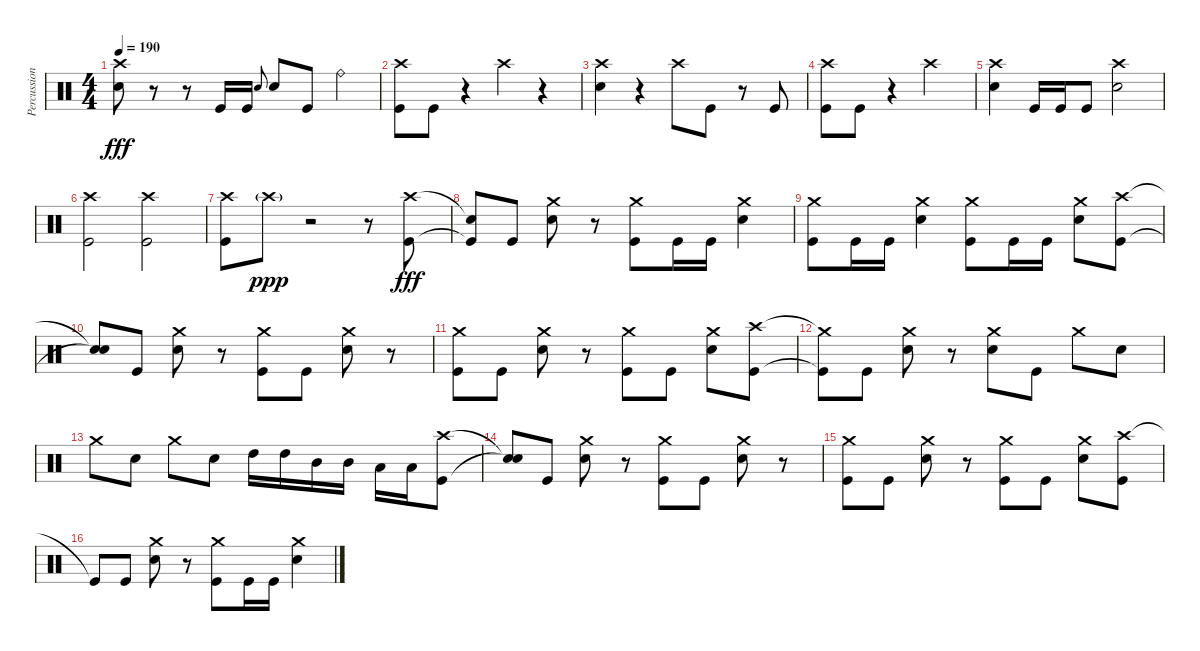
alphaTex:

\track ("Percussion" "Percussion") {instrument percussion}
\staff {score}
\articulation defaults
\ts (4 4)
\tempo 190
\clef neutral
\ks c
("Crash high (hit)" "Snare (hit) 2").8{dy fff} r.8 r.8 "Kick (hit)".16 "Kick (hit)".16 "Snare (hit) 2".8{gr onbeat} "Snare (hit) 2".8 "Kick (hit)".8 "Ride (bell)".4 |
("Crash high (hit)" "Kick (hit)").8 "Kick (hit)".8 r.4 "Crash high (hit)".4 r.4 |
("Crash high (hit)" "Snare (hit) 2").4 r.4 "Crash high (hit)".8 "Kick (hit)".8 r.8 "Kick (hit)".8 |
("Crash high (hit)" "Kick (hit)").8 "Kick (hit)".8 r.4 "Crash high (hit)".2 |
("Crash high (hit)" "Snare (hit) 2").4 "Kick (hit)".16 "Kick (hit)".16 "Kick (hit)".8 ("Crash high (hit)" "Snare (hit) 2").2 |
("Crash high (hit)" "Kick (hit)").2 ("Crash high (hit)" "Kick (hit)").2 |
("Crash high (hit)" "Kick (hit)").8 "Crash high (hit)"{g}.8{dy ppp} r.2 r.8 ("Crash high (hit)" "Kick (hit)").8{dy fff} |
("Snare (hit)"{t} "Kick (hit)"{t}).8 "Kick (hit)".8 ("Crash medium (hit)" "Snare (hit) 2").8 r.8 ("Crash medium (hit)" "Kick (hit)").8 "Kick (hit)".16 "Kick (hit)".16 ("Crash medium (hit)" "Snare (hit) 2").4 |
("Crash medium (hit)" "Kick (hit)").8 "Kick (hit)".16 "Kick (hit)".16 ("Crash medium (hit)" "Snare (hit) 2").4 ("Crash medium (hit)" "Kick (hit)").8 "Kick (hit)".16 "Kick (hit)".16 ("Crash medium (hit)" "Snare (hit) 2").8 ("Crash high (hit)" "Kick (hit)").8 |
("Snare (hit)"{t} "Snare (hit)"{t}).8 "Kick (hit)".8 ("Crash medium (hit)" "Snare (hit) 2").8 r.8 ("Crash medium (hit)" "Kick (hit)").8 "Kick (hit)".8 ("Crash medium (hit)" "Snare (hit) 2").8 r.8 |
("Crash medium (hit)" "Kick (hit)").8 "Kick (hit)".8 ("Crash medium (hit)" "Snare (hit) 2").8 r.8 ("Crash medium (hit)" "Kick (hit)").8 "Kick (hit)".8 ("Crash medium (hit)" "Snare (hit) 2").8 ("Crash high (hit)" "Kick (hit)").8 |
("Crash medium (hit)"{t} "Kick (hit)"{t}).8 "Kick (hit)".8 ("Crash medium (hit)" "Snare (hit) 2").8 r.8 ("Crash medium (hit)" "Snare (hit) 2").8 "Kick (hit)".8 "Crash medium (hit)".8 "Snare (hit) 2".8 |
"Crash medium (hit)".8 "Snare (hit) 2".8 "Crash medium (hit)".8 "Snare (hit) 2".8 "High Tom (hit)".16 "High Tom (hit)".16 "Mid Tom (hit)".16 "Mid Tom (hit)".16 "Low Tom (hit)".16 "Low Tom (hit)".16 ("Crash high (hit)" "Kick (hit)").8 |
("Snare (hit)"{t} "Snare (hit)"{t}).8 "Kick (hit)".8 ("Crash medium (hit)" "Snare (hit) 2").8 r.8 ("Crash medium (hit)" "Kick (hit)").8 "Kick (hit)".8 ("Crash medium (hit)" "Snare (hit) 2").8 r.8 |
("Crash medium (hit)" "Kick (hit)").8 "Kick (hit)".8 ("Crash medium (hit)" "Snare (hit) 2").8 r.8 ("Crash medium (hit)" "Kick (hit)").8 "Kick (hit)".8 ("Crash medium (hit)" "Snare (hit) 2").8 ("Crash high (hit)" "Kick (hit)").8 |
"Kick (hit)"{t}.8 "Kick (hit)".8 ("Crash medium (hit)" "Snare (hit) 2").8 r.8 ("Crash medium (hit)" "Kick (hit)").8 "Kick (hit)".16 "Kick (hit)".16 ("Crash medium (hit)" "Snare (hit) 2").4
